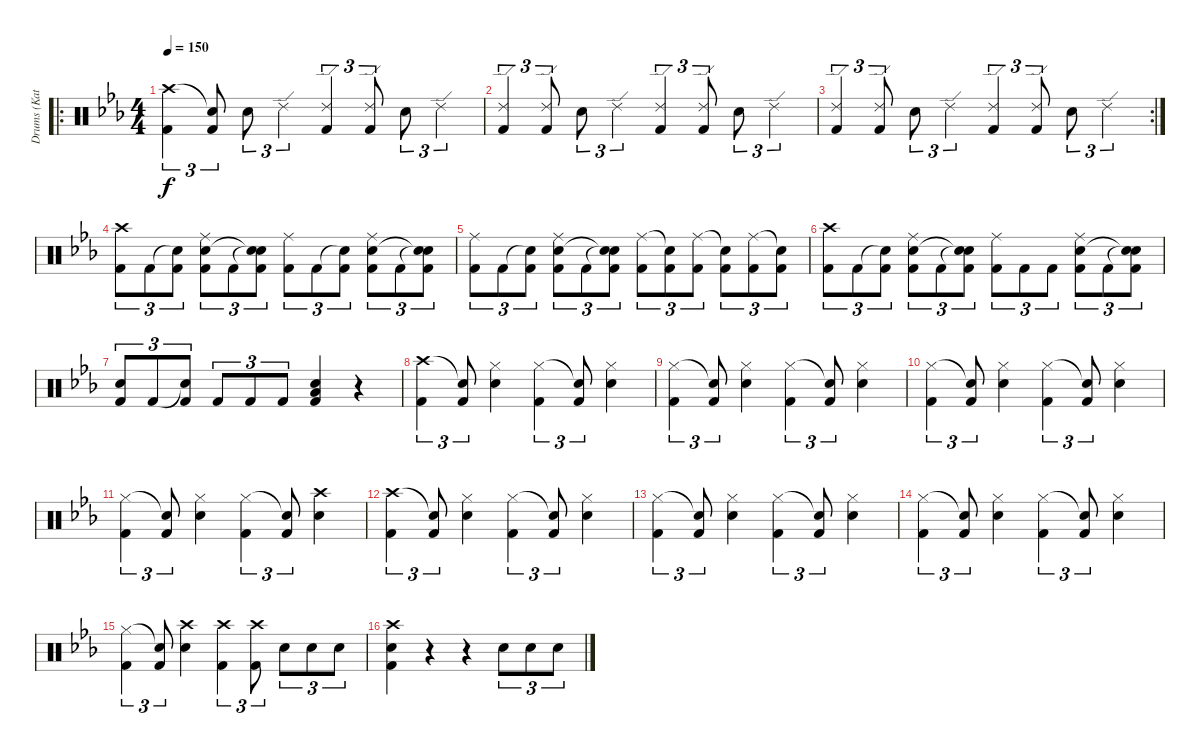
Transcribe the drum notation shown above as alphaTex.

\track ("Drums (Katsuji)" "Drums (Kat") {instrument percussion}
\staff {score}
\articulation defaults
\ro
\ts (4 4)
\tempo 150
\clef neutral
\ks eb
("Crash high (hit)" "Kick (hit) 2").4{tu (3 2) dy f} ("Snare (hit)"{t} "Kick (hit) 2").8{tu (3 2)} "Snare (hit) 2".8{tu (3 2)} "Ride (edge) 2".4{tu (3 2)} ("Ride (edge) 2" "Kick (hit) 2").4{tu (3 2)} ("Ride (edge) 2" "Kick (hit) 2").8{tu (3 2)} "Snare (hit) 2".8{tu (3 2)} "Ride (edge) 2".4{tu (3 2)} |
("Ride (edge) 2" "Kick (hit) 2").4{tu (3 2)} ("Ride (edge) 2" "Kick (hit) 2").8{tu (3 2)} "Snare (hit) 2".8{tu (3 2)} "Ride (edge) 2".4{tu (3 2)} ("Ride (edge) 2" "Kick (hit) 2").4{tu (3 2)} ("Ride (edge) 2" "Kick (hit) 2").8{tu (3 2)} "Snare (hit) 2".8{tu (3 2)} "Ride (edge) 2".4{tu (3 2)} |
\rc 2
("Ride (edge) 2" "Kick (hit) 2").4{tu (3 2)} ("Ride (edge) 2" "Kick (hit) 2").8{tu (3 2)} "Snare (hit) 2".8{tu (3 2)} "Ride (edge) 2".4{tu (3 2)} ("Ride (edge) 2" "Kick (hit) 2").4{tu (3 2)} ("Ride (edge) 2" "Kick (hit) 2").8{tu (3 2)} "Snare (hit) 2".8{tu (3 2)} "Ride (edge) 2".4{tu (3 2)} |
("Crash high (hit)" "Kick (hit) 2").8{tu (3 2)} "Kick (hit) 2".8{tu (3 2)} ("Snare (hit)"{t} "Kick (hit) 2").8{tu (3 2)} ("Ride (middle)" "Snare (hit) 2" "Kick (hit) 2").8{tu (3 2)} "Kick (hit) 2".8{tu (3 2)} ("Snare (hit)"{t} "Snare (hit)"{t} "Kick (hit) 2").8{tu (3 2)} ("Ride (middle)" "Kick (hit) 2").8{tu (3 2)} "Kick (hit) 2".8{tu (3 2)} ("Snare (hit)"{t} "Kick (hit) 2").8{tu (3 2)} ("Ride (middle)" "Snare (hit) 2" "Kick (hit) 2").8{tu (3 2)} "Kick (hit) 2".8{tu (3 2)} ("Snare (hit)"{t} "Snare (hit)"{t} "Kick (hit) 2").8{tu (3 2)} |
("Ride (middle)" "Kick (hit) 2").8{tu (3 2)} "Kick (hit) 2".8{tu (3 2)} ("Snare (hit)"{t} "Kick (hit) 2").8{tu (3 2)} ("Ride (middle)" "Snare (hit) 2" "Kick (hit) 2").8{tu (3 2)} "Kick (hit) 2".8{tu (3 2)} ("Snare (hit)"{t} "Snare (hit)"{t} "Kick (hit) 2").8{tu (3 2)} ("Ride (middle)" "Kick (hit) 2").8{tu (3 2)} ("Snare (hit)"{t} "Kick (hit) 2").8{tu (3 2)} ("Ride (middle)" "Kick (hit) 2").8{tu (3 2)} ("Snare (hit)"{t} "Kick (hit) 2").8{tu (3 2)} ("Ride (middle)" "Kick (hit) 2").8{tu (3 2)} ("Snare (hit)"{t} "Kick (hit) 2").8{tu (3 2)} |
("Crash high (hit)" "Kick (hit) 2").8{tu (3 2)} "Kick (hit) 2".8{tu (3 2)} ("Snare (hit)"{t} "Kick (hit) 2").8{tu (3 2)} ("Ride (middle)" "Snare (hit) 2" "Kick (hit) 2").8{tu (3 2)} "Kick (hit) 2".8{tu (3 2)} ("Snare (hit)"{t} "Snare (hit)"{t} "Kick (hit) 2").8{tu (3 2)} ("Ride (middle)" "Kick (hit) 2").8{tu (3 2)} "Kick (hit) 2".8{tu (3 2)} "Kick (hit) 2".8{tu (3 2)} ("Ride (middle)" "Snare (hit) 2" "Kick (hit) 2").8{tu (3 2)} "Kick (hit) 2".8{tu (3 2)} ("Snare (hit)"{t} "Snare (hit)"{t} "Kick (hit) 2").8{tu (3 2)} |
("Snare (hit) 2" "Kick (hit) 2").8{tu (3 2)} "Kick (hit) 2".8{tu (3 2)} ("Snare (hit)"{t} "Kick (hit) 2").8{tu (3 2)} "Kick (hit) 2".8{tu (3 2)} "Kick (hit) 2".8{tu (3 2)} "Kick (hit) 2".8{tu (3 2)} ("Snare (hit) 2" "Low Tom (hit)" "Kick (hit) 2").4 r.4 |
("Crash high (hit)" "Kick (hit) 2").4{tu (3 2)} ("Snare (hit)"{t} "Kick (hit) 2").8{tu (3 2)} ("Hi-Hat (closed)" "Snare (hit) 2").4 ("Hi-Hat (closed)" "Kick (hit) 2").4{tu (3 2)} ("Snare (hit)"{t} "Kick (hit) 2").8{tu (3 2)} ("Hi-Hat (closed)" "Snare (hit) 2").4 |
("Hi-Hat (closed)" "Kick (hit) 2").4{tu (3 2)} ("Snare (hit)"{t} "Kick (hit) 2").8{tu (3 2)} ("Hi-Hat (closed)" "Snare (hit) 2").4 ("Hi-Hat (closed)" "Kick (hit) 2").4{tu (3 2)} ("Snare (hit)"{t} "Kick (hit) 2").8{tu (3 2)} ("Hi-Hat (closed)" "Snare (hit) 2").4 |
("Hi-Hat (closed)" "Kick (hit) 2").4{tu (3 2)} ("Snare (hit)"{t} "Kick (hit) 2").8{tu (3 2)} ("Hi-Hat (closed)" "Snare (hit) 2").4 ("Hi-Hat (closed)" "Kick (hit) 2").4{tu (3 2)} ("Snare (hit)"{t} "Kick (hit) 2").8{tu (3 2)} ("Hi-Hat (closed)" "Snare (hit) 2").4 |
("Hi-Hat (closed)" "Kick (hit) 2").4{tu (3 2)} ("Snare (hit)"{t} "Kick (hit) 2").8{tu (3 2)} ("Hi-Hat (closed)" "Snare (hit) 2").4 ("Hi-Hat (closed)" "Kick (hit) 2").4{tu (3 2)} ("Snare (hit)"{t} "Kick (hit) 2").8{tu (3 2)} ("Crash high (hit)" "Snare (hit) 2").4 |
("Crash high (hit)" "Kick (hit) 2").4{tu (3 2)} ("Snare (hit)"{t} "Kick (hit) 2").8{tu (3 2)} ("Hi-Hat (closed)" "Snare (hit) 2").4 ("Hi-Hat (closed)" "Kick (hit) 2").4{tu (3 2)} ("Snare (hit)"{t} "Kick (hit) 2").8{tu (3 2)} ("Hi-Hat (closed)" "Snare (hit) 2").4 |
("Hi-Hat (closed)" "Kick (hit) 2").4{tu (3 2)} ("Snare (hit)"{t} "Kick (hit) 2").8{tu (3 2)} ("Hi-Hat (closed)" "Snare (hit) 2").4 ("Hi-Hat (closed)" "Kick (hit) 2").4{tu (3 2)} ("Snare (hit)"{t} "Kick (hit) 2").8{tu (3 2)} ("Hi-Hat (closed)" "Snare (hit) 2").4 |
("Hi-Hat (closed)" "Kick (hit) 2").4{tu (3 2)} ("Snare (hit)"{t} "Kick (hit) 2").8{tu (3 2)} ("Hi-Hat (closed)" "Snare (hit) 2").4 ("Hi-Hat (closed)" "Kick (hit) 2").4{tu (3 2)} ("Snare (hit)"{t} "Kick (hit) 2").8{tu (3 2)} ("Hi-Hat (closed)" "Snare (hit) 2").4 |
("Hi-Hat (closed)" "Kick (hit) 2").4{tu (3 2)} ("Snare (hit)"{t} "Kick (hit) 2").8{tu (3 2)} ("Crash high (hit)" "Snare (hit) 2").4 ("Crash high (hit)" "Kick (hit) 2").4{tu (3 2)} ("Crash high (hit)" "Kick (hit) 2").8{tu (3 2)} "Snare (hit) 2".8{tu (3 2)} "Snare (hit) 2".8{tu (3 2)} "Snare (hit) 2".8{tu (3 2)} |
("Crash high (hit)" "Snare (hit) 2" "Kick (hit) 2").4 r.4 r.4 "Snare (hit) 2".8{tu (3 2)} "Snare (hit) 2".8{tu (3 2)} "Snare (hit) 2".8{tu (3 2)}
